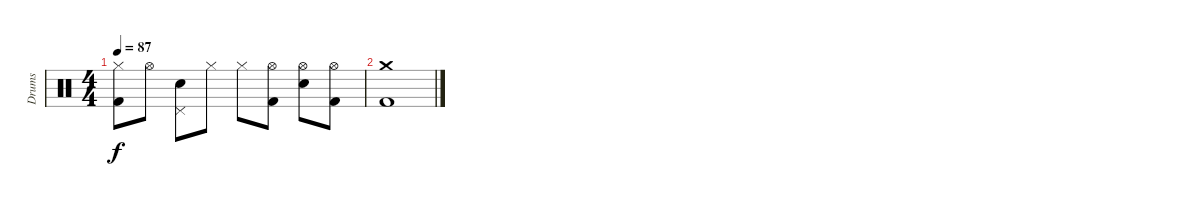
\track ("Drums" "Drums") {instrument percussion}
\staff {score}
\articulation defaults
\ts (4 4)
\tempo 87
\clef neutral
\ks c
("Hi-Hat (closed)" "Kick (hit) 2").8{dy f} "Hi-Hat (open)".8 ("Pedal Hi-Hat (hit)" "Electric Snare (hit)").8 "Hi-Hat (closed)".8 "Hi-Hat (closed)".8 ("Hi-Hat (open)" "Kick (hit) 2").8 ("Hi-Hat (open)" "Electric Snare (hit)").8 ("Hi-Hat (open)" "Kick (hit) 2").8 |
("Crash medium (hit)" "Kick (hit) 2").1
